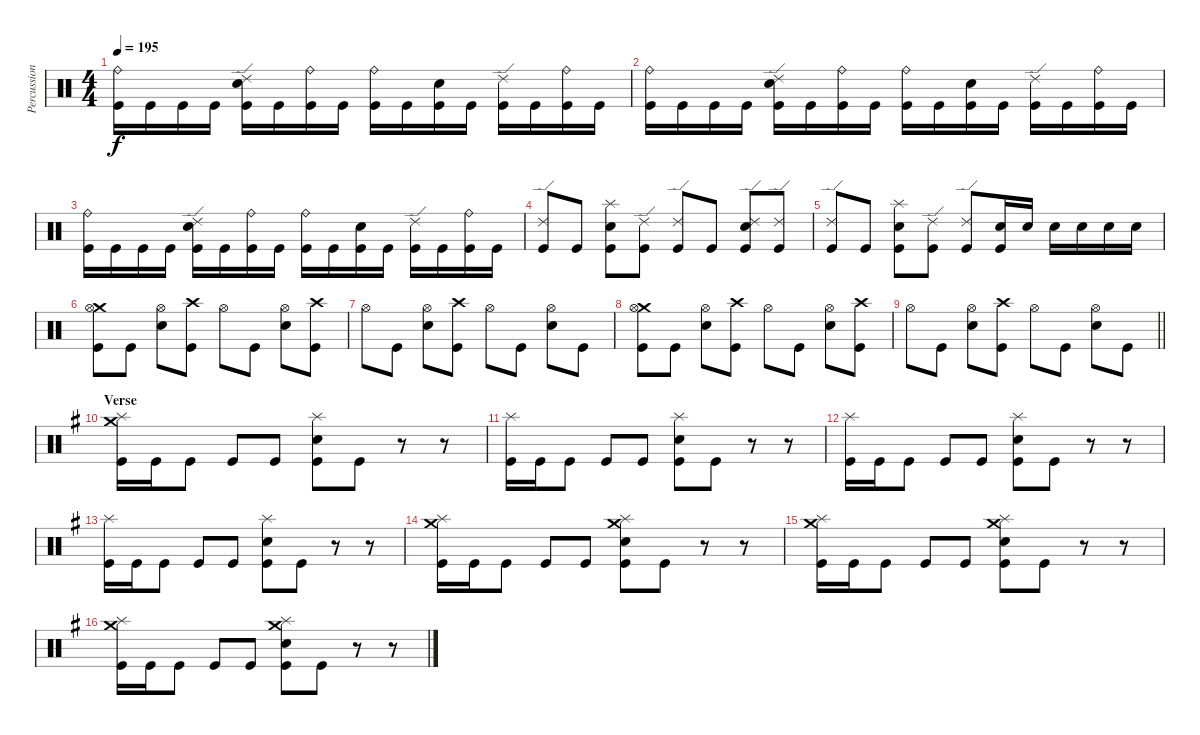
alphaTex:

\track ("Percussion" "Percussion") {instrument percussion}
\staff {score}
\articulation defaults
\ts (4 4)
\tempo 195
\clef neutral
\ks c
("Ride (bell)" "Kick (hit)").16{dy f} "Kick (hit)".16 "Kick (hit)".16 "Kick (hit)".16 ("Ride (edge) 2" "Electric Snare (hit)" "Kick (hit)").16 "Kick (hit)".16 ("Ride (bell)" "Kick (hit)").16 "Kick (hit)".16 ("Ride (bell)" "Kick (hit)").16 "Kick (hit)".16 ("Electric Snare (hit)" "Kick (hit)").16 "Kick (hit)".16 ("Ride (edge) 2" "Kick (hit)").16 "Kick (hit)".16 ("Ride (bell)" "Kick (hit)").16 "Kick (hit)".16 |
("Ride (bell)" "Kick (hit)").16 "Kick (hit)".16 "Kick (hit)".16 "Kick (hit)".16 ("Ride (edge) 2" "Electric Snare (hit)" "Kick (hit)").16 "Kick (hit)".16 ("Ride (bell)" "Kick (hit)").16 "Kick (hit)".16 ("Ride (bell)" "Kick (hit)").16 "Kick (hit)".16 ("Electric Snare (hit)" "Kick (hit)").16 "Kick (hit)".16 ("Ride (edge) 2" "Kick (hit)").16 "Kick (hit)".16 ("Ride (bell)" "Kick (hit)").16 "Kick (hit)".16 |
("Ride (bell)" "Kick (hit)").16 "Kick (hit)".16 "Kick (hit)".16 "Kick (hit)".16 ("Ride (edge) 2" "Electric Snare (hit)" "Kick (hit)").16 "Kick (hit)".16 ("Ride (bell)" "Kick (hit)").16 "Kick (hit)".16 ("Ride (bell)" "Kick (hit)").16 "Kick (hit)".16 ("Electric Snare (hit)" "Kick (hit)").16 "Kick (hit)".16 ("Ride (edge) 2" "Kick (hit)").16 "Kick (hit)".16 ("Ride (bell)" "Kick (hit)").16 "Kick (hit)".16 |
("Ride (edge) 2" "Kick (hit)").8 "Kick (hit)".8 ("Splash (hit)" "Electric Snare (hit)" "Kick (hit)").8 ("Ride (edge) 2" "Kick (hit)").8 ("Ride (edge) 2" "Kick (hit)").8 "Kick (hit)".8 ("Ride (edge) 2" "Electric Snare (hit)" "Kick (hit)").8 ("Ride (edge) 2" "Kick (hit)").8 |
("Ride (edge) 2" "Kick (hit)").8 "Kick (hit)".8 ("Splash (hit)" "Electric Snare (hit)" "Kick (hit)").8 ("Ride (edge) 2" "Kick (hit)").8 ("Ride (edge) 2" "Kick (hit)").8 ("Electric Snare (hit)" "Kick (hit)").16 "Electric Snare (hit)".16 "Electric Snare (hit)".16 "Electric Snare (hit)".16 "Electric Snare (hit)".16 "Electric Snare (hit)".16 |
("Crash medium (hit)" "Hi-Hat (open)" "Kick (hit)").8 "Kick (hit)".8 ("Hi-Hat (open)" "Electric Snare (hit)").8 ("Crash high (hit)" "Kick (hit)").8 "Hi-Hat (open)".8 "Kick (hit)".8 ("Hi-Hat (open)" "Electric Snare (hit)").8 ("Crash high (hit)" "Kick (hit)").8 |
"Hi-Hat (open)".8 "Kick (hit)".8 ("Hi-Hat (open)" "Electric Snare (hit)").8 ("Crash high (hit)" "Kick (hit)").8 "Hi-Hat (open)".8 "Kick (hit)".8 ("Hi-Hat (open)" "Electric Snare (hit)").8 "Kick (hit)".8 |
("Crash medium (hit)" "Hi-Hat (open)" "Kick (hit)").8 "Kick (hit)".8 ("Hi-Hat (open)" "Electric Snare (hit)").8 ("Crash high (hit)" "Kick (hit)").8 "Hi-Hat (open)".8 "Kick (hit)".8 ("Hi-Hat (open)" "Electric Snare (hit)").8 ("Crash high (hit)" "Kick (hit)").8 |
\barLineRight lightlight "Hi-Hat (open)".8 "Kick (hit)".8
("Hi-Hat (open)" "Electric Snare (hit)").8 ("Crash high (hit)" "Kick (hit)").8 "Hi-Hat (open)".8 "Kick (hit)".8 ("Hi-Hat (open)" "Electric Snare (hit)").8 "Kick (hit)".8 |
\section ("" "Verse")
\ks g
("Crash medium (hit)" "Splash (hit)" "Kick (hit)").16 "Kick (hit)".16 "Kick (hit)".8 "Kick (hit)".8 "Kick (hit)".8 ("Splash (hit)" "Electric Snare (hit)" "Kick (hit)").8 "Kick (hit)".8 r.8 r.8 |
("Splash (hit)" "Kick (hit)").16 "Kick (hit)".16 "Kick (hit)".8 "Kick (hit)".8 "Kick (hit)".8 ("Splash (hit)" "Electric Snare (hit)" "Kick (hit)").8 "Kick (hit)".8 r.8 r.8 |
("Splash (hit)" "Kick (hit)").16 "Kick (hit)".16 "Kick (hit)".8 "Kick (hit)".8 "Kick (hit)".8 ("Splash (hit)" "Electric Snare (hit)" "Kick (hit)").8 "Kick (hit)".8 r.8 r.8 |
("Splash (hit)" "Kick (hit)").16 "Kick (hit)".16 "Kick (hit)".8 "Kick (hit)".8 "Kick (hit)".8 ("Splash (hit)" "Electric Snare (hit)" "Kick (hit)").8 "Kick (hit)".8 r.8 r.8 |
("Crash medium (hit)" "Splash (hit)" "Kick (hit)").16 "Kick (hit)".16 "Kick (hit)".8 "Kick (hit)".8 "Kick (hit)".8 ("Crash medium (hit)" "Splash (hit)" "Electric Snare (hit)" "Kick (hit)").8 "Kick (hit)".8 r.8 r.8 |
("Crash medium (hit)" "Splash (hit)" "Kick (hit)").16 "Kick (hit)".16 "Kick (hit)".8 "Kick (hit)".8 "Kick (hit)".8 ("Crash medium (hit)" "Splash (hit)" "Electric Snare (hit)" "Kick (hit)").8 "Kick (hit)".8 r.8 r.8 |
("Crash medium (hit)" "Splash (hit)" "Kick (hit)").16 "Kick (hit)".16 "Kick (hit)".8 "Kick (hit)".8 "Kick (hit)".8 ("Crash medium (hit)" "Splash (hit)" "Electric Snare (hit)" "Kick (hit)").8 "Kick (hit)".8 r.8 r.8
